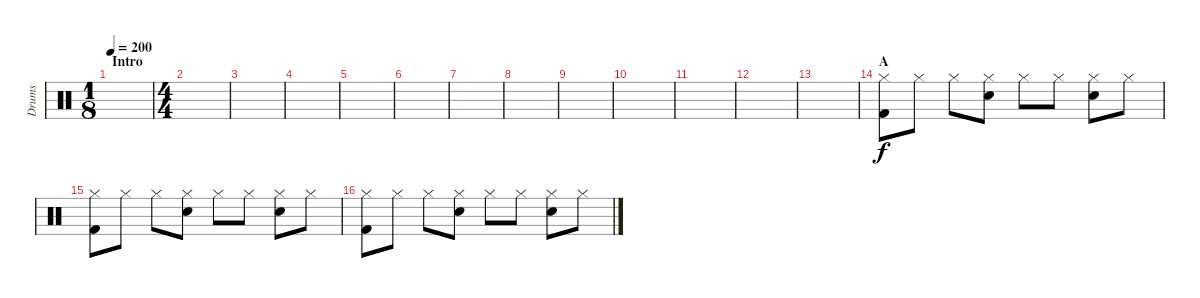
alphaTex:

\track ("Drums" "Drums") {instrument percussion}
\staff {score}
\articulation defaults
\ts (1 8)
\section ("" "Intro")
\tempo 200
\clef neutral
\ks c
|
\ts (4 4)
|
|
|
|
|
|
|
|
|
|
|
|
\section ("" "A")
("Hi-Hat (closed)" "Kick (hit) 2").8 "Hi-Hat (closed)".8 "Hi-Hat (closed)".8 ("Hi-Hat (closed)" "Electric Snare (hit)").8 "Hi-Hat (closed)".8 "Hi-Hat (closed)".8 ("Hi-Hat (closed)" "Electric Snare (hit)").8 "Hi-Hat (closed)".8 |
("Hi-Hat (closed)" "Kick (hit) 2").8 "Hi-Hat (closed)".8 "Hi-Hat (closed)".8 ("Hi-Hat (closed)" "Electric Snare (hit)").8 "Hi-Hat (closed)".8 "Hi-Hat (closed)".8 ("Hi-Hat (closed)" "Electric Snare (hit)").8 "Hi-Hat (closed)".8 |
("Hi-Hat (closed)" "Kick (hit) 2").8 "Hi-Hat (closed)".8 "Hi-Hat (closed)".8 ("Hi-Hat (closed)" "Electric Snare (hit)").8 "Hi-Hat (closed)".8 "Hi-Hat (closed)".8 ("Hi-Hat (closed)" "Electric Snare (hit)").8 "Hi-Hat (closed)".8
